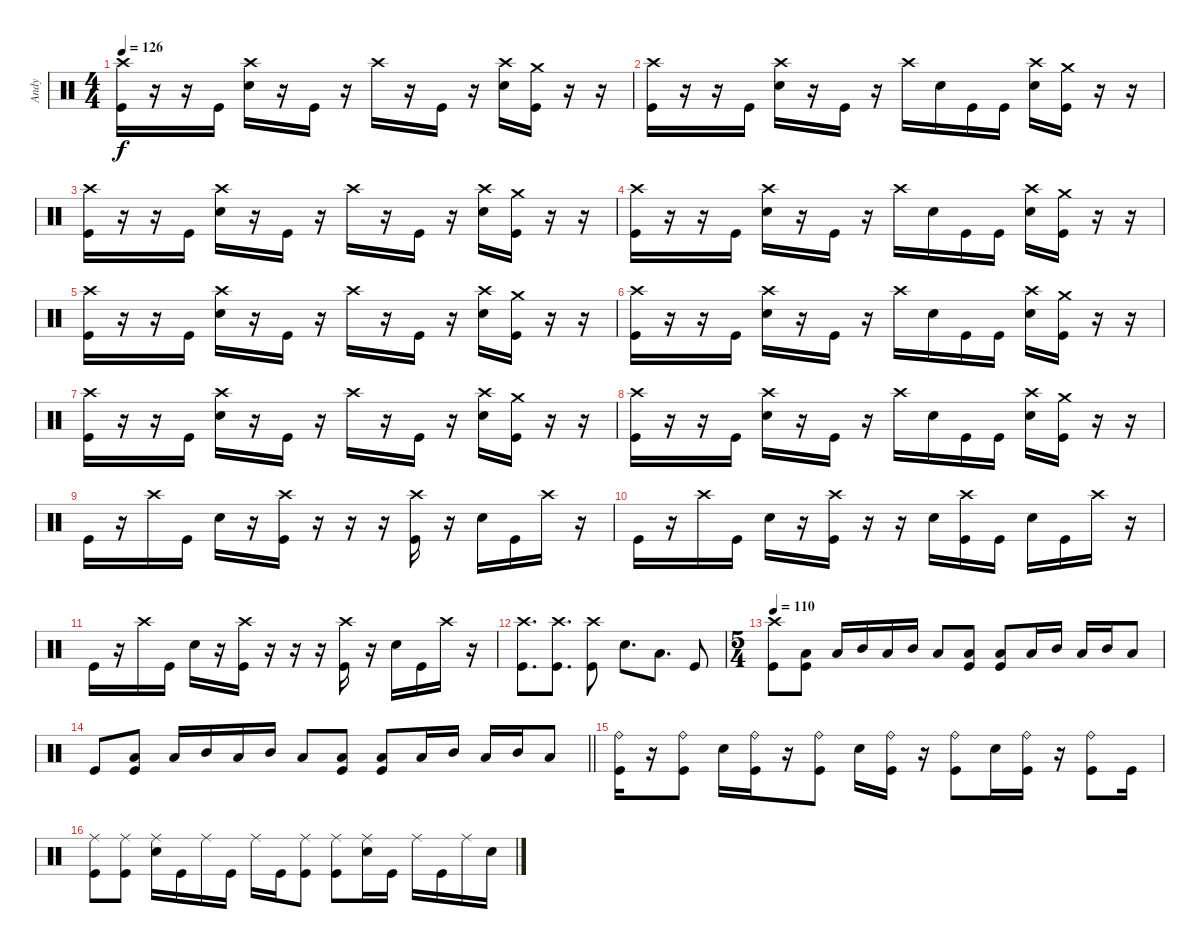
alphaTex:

\track ("Andy" "Andy") {instrument percussion}
\staff {score}
\articulation defaults
\ts (4 4)
\tempo 126
\clef neutral
\ks c
("Kick (hit)" "Crash high (hit)").16{dy f} r.16 r.16 "Kick (hit)".16 ("Crash high (hit)" "Snare (hit) 2").16 r.16 "Kick (hit)".16 r.16 "Crash high (hit)".16 r.16 "Kick (hit)".16 r.16 ("Snare (hit) 2" "Crash high (hit)").16 ("Kick (hit)" "Crash medium (hit)").16 r.16 r.16 |
("Kick (hit)" "Crash high (hit)").16 r.16 r.16 "Kick (hit)".16 ("Crash high (hit)" "Snare (hit) 2").16 r.16 "Kick (hit)".16 r.16 "Crash high (hit)".16 "Snare (hit) 2".16 "Kick (hit)".16 "Kick (hit)".16 ("Snare (hit) 2" "Crash high (hit)").16 ("Kick (hit)" "Crash medium (hit)").16 r.16 r.16 |
("Kick (hit)" "Crash high (hit)").16 r.16 r.16 "Kick (hit)".16 ("Crash high (hit)" "Snare (hit) 2").16 r.16 "Kick (hit)".16 r.16 "Crash high (hit)".16 r.16 "Kick (hit)".16 r.16 ("Snare (hit) 2" "Crash high (hit)").16 ("Kick (hit)" "Crash medium (hit)").16 r.16 r.16 |
("Kick (hit)" "Crash high (hit)").16 r.16 r.16 "Kick (hit)".16 ("Crash high (hit)" "Snare (hit) 2").16 r.16 "Kick (hit)".16 r.16 "Crash high (hit)".16 "Snare (hit) 2".16 "Kick (hit)".16 "Kick (hit)".16 ("Snare (hit) 2" "Crash high (hit)").16 ("Kick (hit)" "Crash medium (hit)").16 r.16 r.16 |
("Kick (hit)" "Crash high (hit)").16 r.16 r.16 "Kick (hit)".16 ("Crash high (hit)" "Snare (hit) 2").16 r.16 "Kick (hit)".16 r.16 "Crash high (hit)".16 r.16 "Kick (hit)".16 r.16 ("Snare (hit) 2" "Crash high (hit)").16 ("Kick (hit)" "Crash medium (hit)").16 r.16 r.16 |
("Kick (hit)" "Crash high (hit)").16 r.16 r.16 "Kick (hit)".16 ("Crash high (hit)" "Snare (hit) 2").16 r.16 "Kick (hit)".16 r.16 "Crash high (hit)".16 "Snare (hit) 2".16 "Kick (hit)".16 "Kick (hit)".16 ("Snare (hit) 2" "Crash high (hit)").16 ("Kick (hit)" "Crash medium (hit)").16 r.16 r.16 |
("Kick (hit)" "Crash high (hit)").16 r.16 r.16 "Kick (hit)".16 ("Crash high (hit)" "Snare (hit) 2").16 r.16 "Kick (hit)".16 r.16 "Crash high (hit)".16 r.16 "Kick (hit)".16 r.16 ("Snare (hit) 2" "Crash high (hit)").16 ("Kick (hit)" "Crash medium (hit)").16 r.16 r.16 |
("Kick (hit)" "Crash high (hit)").16 r.16 r.16 "Kick (hit)".16 ("Crash high (hit)" "Snare (hit) 2").16 r.16 "Kick (hit)".16 r.16 "Crash high (hit)".16 "Snare (hit) 2".16 "Kick (hit)".16 "Kick (hit)".16 ("Snare (hit) 2" "Crash high (hit)").16 ("Kick (hit)" "Crash medium (hit)").16 r.16 r.16 |
"Kick (hit)".16 r.16 "Crash high (hit)".16 "Kick (hit)".16 "Snare (hit) 2".16 r.16 ("Kick (hit)" "Crash high (hit)").16 r.16 r.16 r.16 ("Kick (hit)" "Crash high (hit)").16 r.16 "Snare (hit) 2".16 "Kick (hit)".16 "Crash high (hit)".16 r.16 |
"Kick (hit)".16 r.16 "Crash high (hit)".16 "Kick (hit)".16 "Snare (hit) 2".16 r.16 ("Kick (hit)" "Crash high (hit)").16 r.16 r.16 "Snare (hit) 2".16 ("Kick (hit)" "Crash high (hit)").16 "Kick (hit)".16 "Snare (hit) 2".16 "Kick (hit)".16 "Crash high (hit)".16 r.16 |
"Kick (hit)".16 r.16 "Crash high (hit)".16 "Kick (hit)".16 "Snare (hit) 2".16 r.16 ("Kick (hit)" "Crash high (hit)").16 r.16 r.16 r.16 ("Kick (hit)" "Crash high (hit)").16 r.16 "Snare (hit) 2".16 "Kick (hit)".16 "Crash high (hit)".16 r.16 |
("Kick (hit)" "Crash high (hit)").8{d} ("Crash high (hit)" "Kick (hit)").8{d} ("Kick (hit)" "Crash high (hit)").8 "Snare (hit) 2".8{d} "Low Floor Tom (hit)".8{d} "Kick (hit)".8 |
\ts (5 4)
\tempo 110
("Crash high (hit)" "Kick (hit)").8 ("Low Floor Tom (hit)" "Kick (hit)").8 "Low Floor Tom (hit)".16 "Mid Tom (hit)".16 "Low Floor Tom (hit)".16 "Mid Tom (hit)".16 "Low Floor Tom (hit)".8 ("Kick (hit)" "Low Floor Tom (hit)").8 ("Kick (hit)" "Low Floor Tom (hit)").8 "Low Floor Tom (hit)".16 "Mid Tom (hit)".16 "Low Floor Tom (hit)".16 "Mid Tom (hit)".16 "Low Floor Tom (hit)".8 |
\barLineRight lightlight "Kick (hit)".8
("Low Floor Tom (hit)" "Kick (hit)").8 "Low Floor Tom (hit)".16 "Mid Tom (hit)".16 "Low Floor Tom (hit)".16 "Mid Tom (hit)".16 "Low Floor Tom (hit)".8 ("Kick (hit)" "Low Floor Tom (hit)").8 ("Kick (hit)" "Low Floor Tom (hit)").8 "Low Floor Tom (hit)".16 "Mid Tom (hit)".16 "Low Floor Tom (hit)".16 "Mid Tom (hit)".16 "Low Floor Tom (hit)".8 |
\section ("" "")
("Kick (hit)" "Ride (bell)").16 r.16 ("Kick (hit)" "Ride (bell)").8 "Snare (hit) 2".16 ("Kick (hit)" "Ride (bell)").16 r.16 ("Kick (hit)" "Ride (bell)").8 "Snare (hit) 2".16 ("Kick (hit)" "Ride (bell)").16 r.16 ("Kick (hit)" "Ride (bell)").8 "Snare (hit) 2".16 ("Kick (hit)" "Ride (bell)").16 r.16 ("Kick (hit)" "Ride (bell)").8 "Kick (hit)".16 |
("Kick (hit)" "Ride (middle)").8 ("Kick (hit)" "Ride (middle)").8 ("Snare (hit) 2" "Ride (middle)").16 "Kick (hit)".16 "Ride (middle)".16 "Kick (hit)".16 "Ride (middle)".16 "Kick (hit)".16 ("Kick (hit)" "Ride (middle)").8 ("Kick (hit)" "Ride (middle)").8 ("Snare (hit) 2" "Ride (middle)").16 "Kick (hit)".16 "Ride (middle)".16 "Kick (hit)".16 "Ride (middle)".16 "Snare (hit) 2".16
